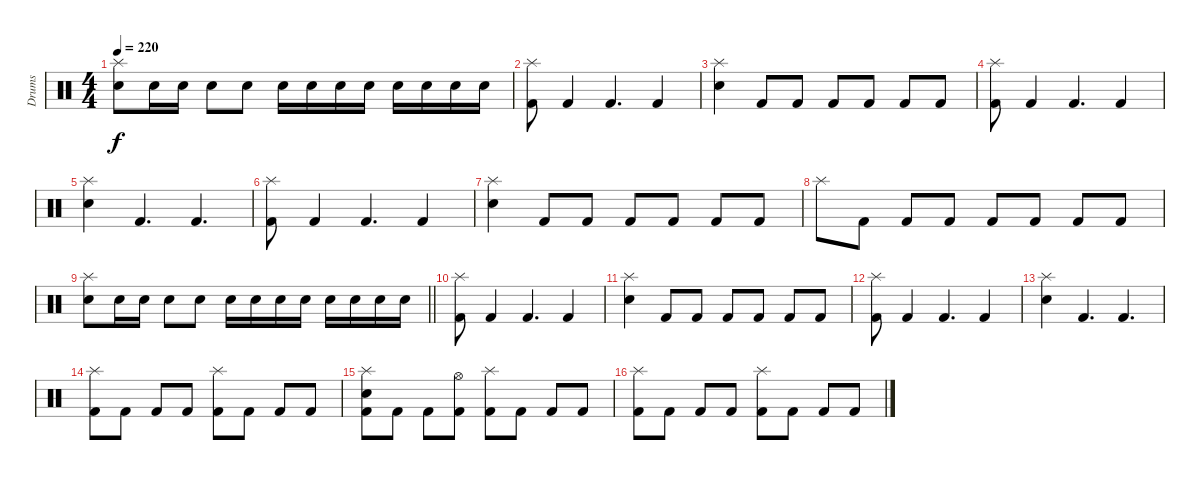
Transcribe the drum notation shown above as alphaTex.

\track ("Drums" "Drums") {instrument percussion}
\staff {score}
\articulation defaults
\ts (4 4)
\tempo 220
\clef neutral
\ks c
("Splash (hit)" "Electric Snare (hit)").8{dy f} "Electric Snare (hit)".16 "Electric Snare (hit)".16 "Electric Snare (hit)".8 "Electric Snare (hit)".8 "Electric Snare (hit)".16 "Electric Snare (hit)".16 "Electric Snare (hit)".16 "Electric Snare (hit)".16 "Electric Snare (hit)".16 "Electric Snare (hit)".16 "Electric Snare (hit)".16 "Electric Snare (hit)".16 |
("Splash (hit)" "Kick (hit) 2").8 "Kick (hit) 2".4 "Kick (hit) 2".4{d} "Kick (hit) 2".4 |
("Splash (hit)" "Electric Snare (hit)").4 "Kick (hit) 2".8 "Kick (hit) 2".8 "Kick (hit) 2".8 "Kick (hit) 2".8 "Kick (hit) 2".8 "Kick (hit) 2".8 |
("Splash (hit)" "Kick (hit) 2").8 "Kick (hit) 2".4 "Kick (hit) 2".4{d} "Kick (hit) 2".4 |
("Splash (hit)" "Electric Snare (hit)").4 "Kick (hit) 2".4{d} "Kick (hit) 2".4{d} |
("Splash (hit)" "Kick (hit) 2").8 "Kick (hit) 2".4 "Kick (hit) 2".4{d} "Kick (hit) 2".4 |
("Splash (hit)" "Electric Snare (hit)").4 "Kick (hit) 2".8 "Kick (hit) 2".8 "Kick (hit) 2".8 "Kick (hit) 2".8 "Kick (hit) 2".8 "Kick (hit) 2".8 |
"Splash (hit)".8 "Kick (hit) 2".8 "Kick (hit) 2".8 "Kick (hit) 2".8 "Kick (hit) 2".8 "Kick (hit) 2".8 "Kick (hit) 2".8 "Kick (hit) 2".8 |
\barLineRight lightlight
("Splash (hit)" "Electric Snare (hit)").8 "Electric Snare (hit)".16 "Electric Snare (hit)".16 "Electric Snare (hit)".8 "Electric Snare (hit)".8 "Electric Snare (hit)".16 "Electric Snare (hit)".16 "Electric Snare (hit)".16 "Electric Snare (hit)".16 "Electric Snare (hit)".16 "Electric Snare (hit)".16 "Electric Snare (hit)".16 "Electric Snare (hit)".16 |
\section ("" "")
("Splash (hit)" "Kick (hit) 2").8 "Kick (hit) 2".4 "Kick (hit) 2".4{d} "Kick (hit) 2".4 |
("Splash (hit)" "Electric Snare (hit)").4 "Kick (hit) 2".8 "Kick (hit) 2".8 "Kick (hit) 2".8 "Kick (hit) 2".8 "Kick (hit) 2".8 "Kick (hit) 2".8 |
("Splash (hit)" "Kick (hit) 2").8 "Kick (hit) 2".4 "Kick (hit) 2".4{d} "Kick (hit) 2".4 |
("Splash (hit)" "Electric Snare (hit)").4 "Kick (hit) 2".4{d} "Kick (hit) 2".4{d} |
("Splash (hit)" "Kick (hit) 2").8 "Kick (hit) 2".8 "Kick (hit) 2".8 "Kick (hit) 2".8 ("Splash (hit)" "Kick (hit) 2").8 "Kick (hit) 2".8 "Kick (hit) 2".8 "Kick (hit) 2".8 |
("Splash (hit)" "Electric Snare (hit)" "Kick (hit) 2").8 "Kick (hit) 2".8 "Kick (hit) 2".8 ("Hi-Hat (open)" "Kick (hit) 2").8 ("Splash (hit)" "Kick (hit) 2").8 "Kick (hit) 2".8 "Kick (hit) 2".8 "Kick (hit) 2".8 |
("Splash (hit)" "Kick (hit) 2").8 "Kick (hit) 2".8 "Kick (hit) 2".8 "Kick (hit) 2".8 ("Splash (hit)" "Kick (hit) 2").8 "Kick (hit) 2".8 "Kick (hit) 2".8 "Kick (hit) 2".8
